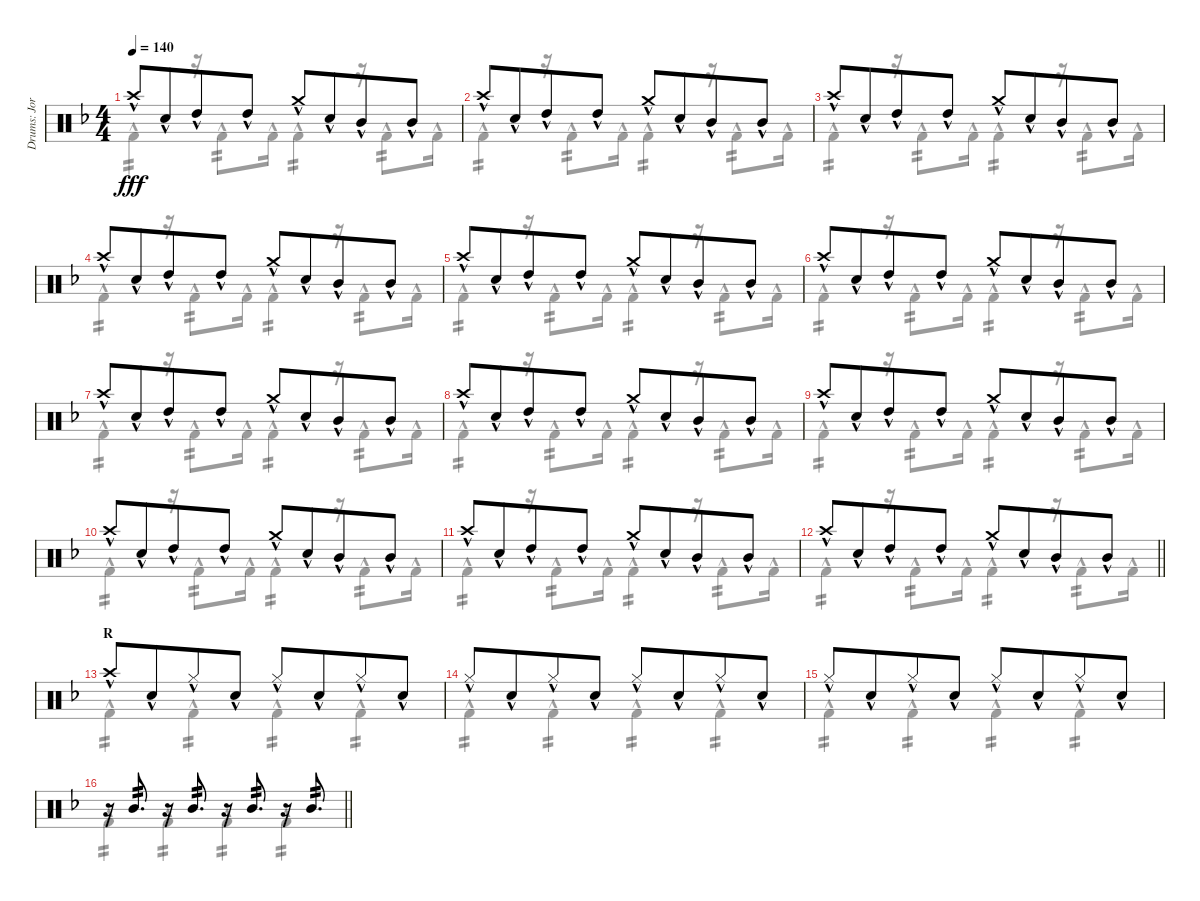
\track ("Drums: Jorg" "Drums: Jor") {instrument percussion}
\staff {score}
\articulation defaults
\voice
\ts (4 4)
\tempo 140
\clef neutral
\ks f "Crash high (hit)"{hac}.8{dy fff} "Snare (hit) 2"{hac}.8{beam merge} "High Tom (hit)"{hac}.8 "High Tom (hit)"{hac}.8 "Crash medium (hit)"{hac}.8 "Snare (hit) 2"{hac}.8{beam merge} "Mid Tom (hit)"{hac}.8 "Mid Tom (hit)"{hac}.8
|
"Crash high (hit)"{hac}.8 "Snare (hit) 2"{hac}.8{beam merge} "High Tom (hit)"{hac}.8 "High Tom (hit)"{hac}.8 "Crash medium (hit)"{hac}.8 "Snare (hit) 2"{hac}.8{beam merge} "Mid Tom (hit)"{hac}.8 "Mid Tom (hit)"{hac}.8 |
"Crash high (hit)"{hac}.8 "Snare (hit) 2"{hac}.8{beam merge} "High Tom (hit)"{hac}.8 "High Tom (hit)"{hac}.8 "Crash medium (hit)"{hac}.8 "Snare (hit) 2"{hac}.8{beam merge} "Mid Tom (hit)"{hac}.8 "Mid Tom (hit)"{hac}.8 |
"Crash high (hit)"{hac}.8 "Snare (hit) 2"{hac}.8{beam merge} "High Tom (hit)"{hac}.8 "High Tom (hit)"{hac}.8 "Crash medium (hit)"{hac}.8 "Snare (hit) 2"{hac}.8{beam merge} "Mid Tom (hit)"{hac}.8 "Mid Tom (hit)"{hac}.8 |
"Crash high (hit)"{hac}.8 "Snare (hit) 2"{hac}.8{beam merge} "High Tom (hit)"{hac}.8 "High Tom (hit)"{hac}.8 "Crash medium (hit)"{hac}.8 "Snare (hit) 2"{hac}.8{beam merge} "Mid Tom (hit)"{hac}.8 "Mid Tom (hit)"{hac}.8 |
"Crash high (hit)"{hac}.8 "Snare (hit) 2"{hac}.8{beam merge} "High Tom (hit)"{hac}.8 "High Tom (hit)"{hac}.8 "Crash medium (hit)"{hac}.8 "Snare (hit) 2"{hac}.8{beam merge} "Mid Tom (hit)"{hac}.8 "Mid Tom (hit)"{hac}.8 |
"Crash high (hit)"{hac}.8 "Snare (hit) 2"{hac}.8{beam merge} "High Tom (hit)"{hac}.8 "High Tom (hit)"{hac}.8 "Crash medium (hit)"{hac}.8 "Snare (hit) 2"{hac}.8{beam merge} "Mid Tom (hit)"{hac}.8 "Mid Tom (hit)"{hac}.8 |
"Crash high (hit)"{hac}.8 "Snare (hit) 2"{hac}.8{beam merge} "High Tom (hit)"{hac}.8 "High Tom (hit)"{hac}.8 "Crash medium (hit)"{hac}.8 "Snare (hit) 2"{hac}.8{beam merge} "Mid Tom (hit)"{hac}.8 "Mid Tom (hit)"{hac}.8 |
"Crash high (hit)"{hac}.8 "Snare (hit) 2"{hac}.8{beam merge} "High Tom (hit)"{hac}.8 "High Tom (hit)"{hac}.8 "Crash medium (hit)"{hac}.8 "Snare (hit) 2"{hac}.8{beam merge} "Mid Tom (hit)"{hac}.8 "Mid Tom (hit)"{hac}.8 |
"Crash high (hit)"{hac}.8 "Snare (hit) 2"{hac}.8{beam merge} "High Tom (hit)"{hac}.8 "High Tom (hit)"{hac}.8 "Crash medium (hit)"{hac}.8 "Snare (hit) 2"{hac}.8{beam merge} "Mid Tom (hit)"{hac}.8 "Mid Tom (hit)"{hac}.8 |
"Crash high (hit)"{hac}.8 "Snare (hit) 2"{hac}.8{beam merge} "High Tom (hit)"{hac}.8 "High Tom (hit)"{hac}.8 "Crash medium (hit)"{hac}.8 "Snare (hit) 2"{hac}.8{beam merge} "Mid Tom (hit)"{hac}.8 "Mid Tom (hit)"{hac}.8 |
\barLineRight lightlight "Crash high (hit)"{hac}.8 "Snare (hit) 2"{hac}.8{beam merge} "High Tom (hit)"{hac}.8 "High Tom (hit)"{hac}.8 "Crash medium (hit)"{hac}.8 "Snare (hit) 2"{hac}.8{beam merge} "Mid Tom (hit)"{hac}.8 "Mid Tom (hit)"{hac}.8
|
\section ("" "R")
"Crash high (hit)"{hac}.8 "Snare (hit) 2"{hac}.8{beam merge} "Hi-Hat (closed)"{hac}.8 "Snare (hit) 2"{hac}.8 "Hi-Hat (closed)"{hac}.8 "Snare (hit) 2"{hac}.8{beam merge} "Hi-Hat (closed)"{hac}.8 "Snare (hit) 2"{hac}.8 |
"Hi-Hat (closed)"{hac}.8 "Snare (hit) 2"{hac}.8{beam merge} "Hi-Hat (closed)"{hac}.8 "Snare (hit) 2"{hac}.8 "Hi-Hat (closed)"{hac}.8 "Snare (hit) 2"{hac}.8{beam merge} "Hi-Hat (closed)"{hac}.8 "Snare (hit) 2"{hac}.8 |
"Hi-Hat (closed)"{hac}.8 "Snare (hit) 2"{hac}.8{beam merge} "Hi-Hat (closed)"{hac}.8 "Snare (hit) 2"{hac}.8 "Hi-Hat (closed)"{hac}.8 "Snare (hit) 2"{hac}.8{beam merge} "Hi-Hat (closed)"{hac}.8 "Snare (hit) 2"{hac}.8 |
\barLineRight lightlight
r.16 "Mid Tom (hit)".8{d tp 2} r.16 "Mid Tom (hit)".8{d tp 2} r.16 "Mid Tom (hit)".8{d tp 2} r.16 "Mid Tom (hit)".8{d tp 2}
\voice
\clef neutral
\ottava regular
\simile none
\ks f "Kick (hit) 2"{hac}.4{tp 2 dy fff}
r.16 "Kick (hit) 2"{hac}.8{tp 2} "Kick (hit) 2"{hac}.16 "Kick (hit) 2"{hac}.4{tp 2} r.16 "Kick (hit) 2"{hac}.8{tp 2} "Kick (hit) 2"{hac}.16 |
"Kick (hit) 2"{hac}.4{tp 2} r.16 "Kick (hit) 2"{hac}.8{tp 2} "Kick (hit) 2"{hac}.16 "Kick (hit) 2"{hac}.4{tp 2} r.16 "Kick (hit) 2"{hac}.8{tp 2} "Kick (hit) 2"{hac}.16 |
"Kick (hit) 2"{hac}.4{tp 2} r.16 "Kick (hit) 2"{hac}.8{tp 2} "Kick (hit) 2"{hac}.16 "Kick (hit) 2"{hac}.4{tp 2} r.16 "Kick (hit) 2"{hac}.8{tp 2} "Kick (hit) 2"{hac}.16 |
"Kick (hit) 2"{hac}.4{tp 2} r.16 "Kick (hit) 2"{hac}.8{tp 2} "Kick (hit) 2"{hac}.16 "Kick (hit) 2"{hac}.4{tp 2} r.16 "Kick (hit) 2"{hac}.8{tp 2} "Kick (hit) 2"{hac}.16 |
"Kick (hit) 2"{hac}.4{tp 2} r.16 "Kick (hit) 2"{hac}.8{tp 2} "Kick (hit) 2"{hac}.16 "Kick (hit) 2"{hac}.4{tp 2} r.16 "Kick (hit) 2"{hac}.8{tp 2} "Kick (hit) 2"{hac}.16 |
"Kick (hit) 2"{hac}.4{tp 2} r.16 "Kick (hit) 2"{hac}.8{tp 2} "Kick (hit) 2"{hac}.16 "Kick (hit) 2"{hac}.4{tp 2} r.16 "Kick (hit) 2"{hac}.8{tp 2} "Kick (hit) 2"{hac}.16 |
"Kick (hit) 2"{hac}.4{tp 2} r.16 "Kick (hit) 2"{hac}.8{tp 2} "Kick (hit) 2"{hac}.16 "Kick (hit) 2"{hac}.4{tp 2} r.16 "Kick (hit) 2"{hac}.8{tp 2} "Kick (hit) 2"{hac}.16 |
"Kick (hit) 2"{hac}.4{tp 2} r.16 "Kick (hit) 2"{hac}.8{tp 2} "Kick (hit) 2"{hac}.16 "Kick (hit) 2"{hac}.4{tp 2} r.16 "Kick (hit) 2"{hac}.8{tp 2} "Kick (hit) 2"{hac}.16 |
"Kick (hit) 2"{hac}.4{tp 2} r.16 "Kick (hit) 2"{hac}.8{tp 2} "Kick (hit) 2"{hac}.16 "Kick (hit) 2"{hac}.4{tp 2} r.16 "Kick (hit) 2"{hac}.8{tp 2} "Kick (hit) 2"{hac}.16 |
"Kick (hit) 2"{hac}.4{tp 2} r.16 "Kick (hit) 2"{hac}.8{tp 2} "Kick (hit) 2"{hac}.16 "Kick (hit) 2"{hac}.4{tp 2} r.16 "Kick (hit) 2"{hac}.8{tp 2} "Kick (hit) 2"{hac}.16 |
"Kick (hit) 2"{hac}.4{tp 2} r.16 "Kick (hit) 2"{hac}.8{tp 2} "Kick (hit) 2"{hac}.16 "Kick (hit) 2"{hac}.4{tp 2} r.16 "Kick (hit) 2"{hac}.8{tp 2} "Kick (hit) 2"{hac}.16 |
\barLineRight lightlight "Kick (hit) 2"{hac}.4{tp 2}
r.16 "Kick (hit) 2"{hac}.8{tp 2} "Kick (hit) 2"{hac}.16 "Kick (hit) 2"{hac}.4{tp 2} r.16 "Kick (hit) 2"{hac}.8{tp 2} "Kick (hit) 2"{hac}.16 |
"Kick (hit) 2"{hac}.4{tp 2 beam merge} "Kick (hit) 2"{hac}.4{tp 2} "Kick (hit) 2"{hac}.4{tp 2} "Kick (hit) 2"{hac}.4{tp 2} |
"Kick (hit) 2"{hac}.4{tp 2 beam merge} "Kick (hit) 2"{hac}.4{tp 2} "Kick (hit) 2"{hac}.4{tp 2} "Kick (hit) 2"{hac}.4{tp 2} |
"Kick (hit) 2"{hac}.4{tp 2 beam merge} "Kick (hit) 2"{hac}.4{tp 2} "Kick (hit) 2"{hac}.4{tp 2} "Kick (hit) 2"{hac}.4{tp 2} |
\barLineRight lightlight "Kick (hit) 2"{hac}.4{tp 2 beam merge} "Kick (hit) 2"{hac}.4{tp 2} "Kick (hit) 2"{hac}.4{tp 2} "Kick (hit) 2"{hac}.4{tp 2}
